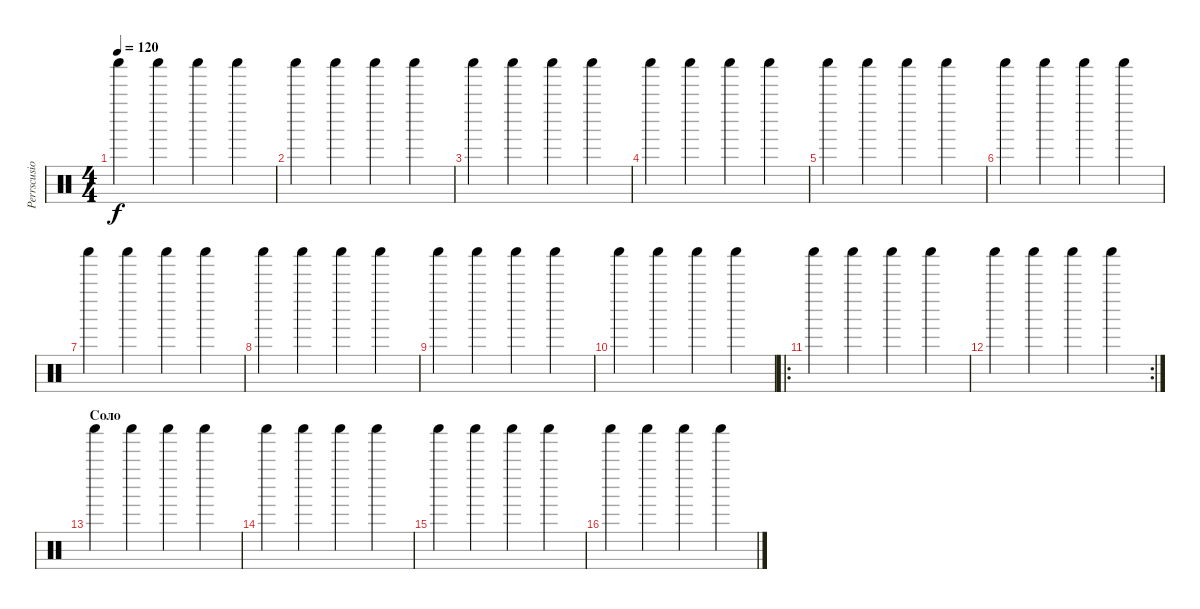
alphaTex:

\track ("Perrscusion" "Perrscusio") {instrument percussion}
\staff {score}
\articulation defaults
\ts (4 4)
\tempo 120
\clef neutral
\ks c "Shaker (hit)".4{dy f} "Shaker (hit)".4 "Shaker (hit)".4 "Shaker (hit)".4
|
"Shaker (hit)".4 "Shaker (hit)".4 "Shaker (hit)".4 "Shaker (hit)".4 |
"Shaker (hit)".4 "Shaker (hit)".4 "Shaker (hit)".4 "Shaker (hit)".4 |
"Shaker (hit)".4 "Shaker (hit)".4 "Shaker (hit)".4 "Shaker (hit)".4 |
"Shaker (hit)".4 "Shaker (hit)".4 "Shaker (hit)".4 "Shaker (hit)".4 |
"Shaker (hit)".4 "Shaker (hit)".4 "Shaker (hit)".4 "Shaker (hit)".4 |
"Shaker (hit)".4 "Shaker (hit)".4 "Shaker (hit)".4 "Shaker (hit)".4 |
"Shaker (hit)".4 "Shaker (hit)".4 "Shaker (hit)".4 "Shaker (hit)".4 |
"Shaker (hit)".4 "Shaker (hit)".4 "Shaker (hit)".4 "Shaker (hit)".4 |
"Shaker (hit)".4 "Shaker (hit)".4 "Shaker (hit)".4 "Shaker (hit)".4 |
\ro "Shaker (hit)".4 "Shaker (hit)".4 "Shaker (hit)".4 "Shaker (hit)".4
|
\rc 2 "Shaker (hit)".4 "Shaker (hit)".4 "Shaker (hit)".4 "Shaker (hit)".4
|
\section ("" "Соло")
"Shaker (hit)".4 "Shaker (hit)".4 "Shaker (hit)".4 "Shaker (hit)".4 |
"Shaker (hit)".4 "Shaker (hit)".4 "Shaker (hit)".4 "Shaker (hit)".4 |
"Shaker (hit)".4 "Shaker (hit)".4 "Shaker (hit)".4 "Shaker (hit)".4 |
"Shaker (hit)".4 "Shaker (hit)".4 "Shaker (hit)".4 "Shaker (hit)".4
